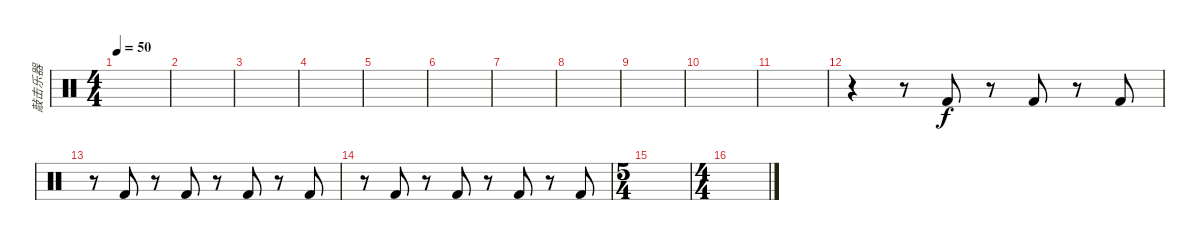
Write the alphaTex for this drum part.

\track ("敲击乐器" "敲击乐器") {instrument percussion}
\staff {score}
\articulation defaults
\ts (4 4)
\tempo 50
\clef neutral
\ks c
|
|
|
|
|
|
|
|
|
|
|
r.4 r.8 "Kick (hit) 2".8 r.8 "Kick (hit) 2".8 r.8 "Kick (hit) 2".8 |
r.8 "Kick (hit) 2".8 r.8 "Kick (hit) 2".8 r.8 "Kick (hit) 2".8 r.8 "Kick (hit) 2".8 |
r.8 "Kick (hit) 2".8 r.8 "Kick (hit) 2".8 r.8 "Kick (hit) 2".8 r.8 "Kick (hit) 2".8 |
\ts (5 4)
|
\ts (4 4)
